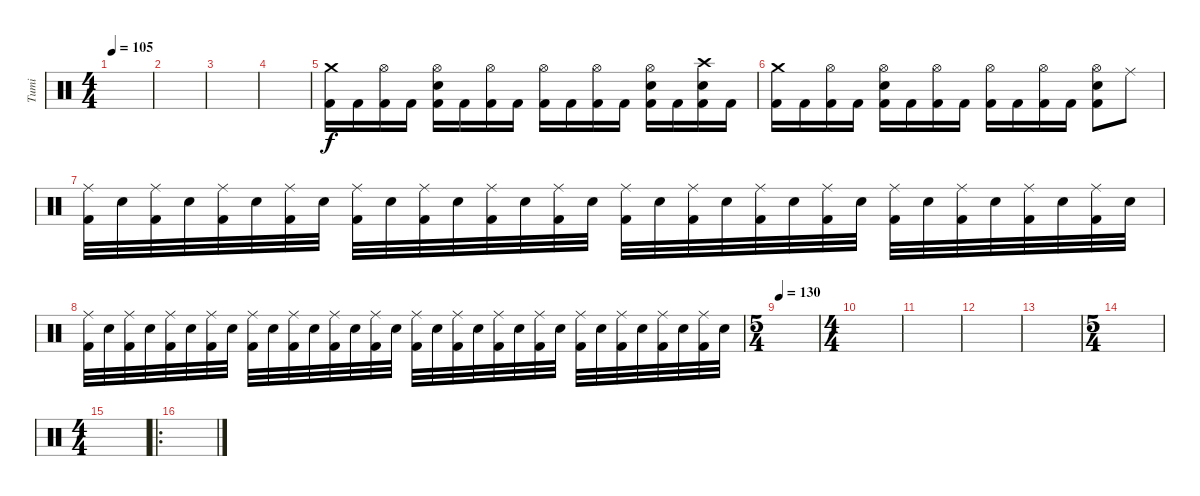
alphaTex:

\track ("Tumi" "Tumi") {instrument percussion}
\staff {score}
\articulation defaults
\ts (4 4)
\tempo 105
\clef neutral
\ks c
|
|
|
|
("Crash medium (hit)" "Kick (hit) 2").16 "Kick (hit) 2".16 ("Hi-Hat (open)" "Kick (hit) 2").16 "Kick (hit) 2".16 ("Hi-Hat (open)" "Electric Snare (hit)" "Kick (hit) 2").16 "Kick (hit) 2".16 ("Hi-Hat (open)" "Kick (hit) 2").16 "Kick (hit) 2".16 ("Hi-Hat (open)" "Kick (hit) 2").16 "Kick (hit) 2".16 ("Hi-Hat (open)" "Kick (hit) 2").16 "Kick (hit) 2".16 ("Hi-Hat (open)" "Electric Snare (hit)" "Kick (hit) 2").16 "Kick (hit) 2".16 ("Electric Snare (hit)" "Crash high (hit)" "Kick (hit) 2").16 "Kick (hit) 2".16 |
("Crash medium (hit)" "Kick (hit) 2").16 "Kick (hit) 2".16 ("Hi-Hat (open)" "Kick (hit) 2").16 "Kick (hit) 2".16 ("Hi-Hat (open)" "Electric Snare (hit)" "Kick (hit) 2").16 "Kick (hit) 2".16 ("Hi-Hat (open)" "Kick (hit) 2").16 "Kick (hit) 2".16 ("Hi-Hat (open)" "Kick (hit) 2").16 "Kick (hit) 2".16 ("Hi-Hat (open)" "Kick (hit) 2").16 "Kick (hit) 2".16 ("Hi-Hat (open)" "Electric Snare (hit)" "Kick (hit) 2").8 "Ride (middle)".8 |
("Ride (middle)" "Kick (hit) 2").32 "Electric Snare (hit)".32 ("Ride (middle)" "Kick (hit) 2").32 "Electric Snare (hit)".32 ("Ride (middle)" "Kick (hit) 2").32 "Electric Snare (hit)".32 ("Ride (middle)" "Kick (hit) 2").32 "Electric Snare (hit)".32 ("Ride (middle)" "Kick (hit) 2").32 "Electric Snare (hit)".32 ("Ride (middle)" "Kick (hit) 2").32 "Electric Snare (hit)".32 ("Ride (middle)" "Kick (hit) 2").32 "Electric Snare (hit)".32 ("Ride (middle)" "Kick (hit) 2").32 "Electric Snare (hit)".32 ("Ride (middle)" "Kick (hit) 2").32 "Electric Snare (hit)".32 ("Ride (middle)" "Kick (hit) 2").32 "Electric Snare (hit)".32 ("Ride (middle)" "Kick (hit) 2").32 "Electric Snare (hit)".32 ("Ride (middle)" "Kick (hit) 2").32 "Electric Snare (hit)".32 ("Ride (middle)" "Kick (hit) 2").32 "Electric Snare (hit)".32 ("Ride (middle)" "Kick (hit) 2").32 "Electric Snare (hit)".32 ("Ride (middle)" "Kick (hit) 2").32 "Electric Snare (hit)".32 ("Ride (middle)" "Kick (hit) 2").32 "Electric Snare (hit)".32 |
("Ride (middle)" "Kick (hit) 2").32 "Electric Snare (hit)".32 ("Ride (middle)" "Kick (hit) 2").32 "Electric Snare (hit)".32 ("Ride (middle)" "Kick (hit) 2").32 "Electric Snare (hit)".32 ("Ride (middle)" "Kick (hit) 2").32 "Electric Snare (hit)".32 ("Ride (middle)" "Kick (hit) 2").32 "Electric Snare (hit)".32 ("Ride (middle)" "Kick (hit) 2").32 "Electric Snare (hit)".32 ("Ride (middle)" "Kick (hit) 2").32 "Electric Snare (hit)".32 ("Ride (middle)" "Kick (hit) 2").32 "Electric Snare (hit)".32 ("Ride (middle)" "Kick (hit) 2").32 "Electric Snare (hit)".32 ("Ride (middle)" "Kick (hit) 2").32 "Electric Snare (hit)".32 ("Ride (middle)" "Kick (hit) 2").32 "Electric Snare (hit)".32 ("Ride (middle)" "Kick (hit) 2").32 "Electric Snare (hit)".32 ("Ride (middle)" "Kick (hit) 2").32 "Electric Snare (hit)".32 ("Ride (middle)" "Kick (hit) 2").32 "Electric Snare (hit)".32 ("Ride (middle)" "Kick (hit) 2").32 "Electric Snare (hit)".32 ("Ride (middle)" "Kick (hit) 2").32 "Electric Snare (hit)".32 |
\ts (5 4)
\tempo 130
|
\ts (4 4)
|
|
|
|
\ts (5 4)
|
\ts (4 4)
|
\ro
